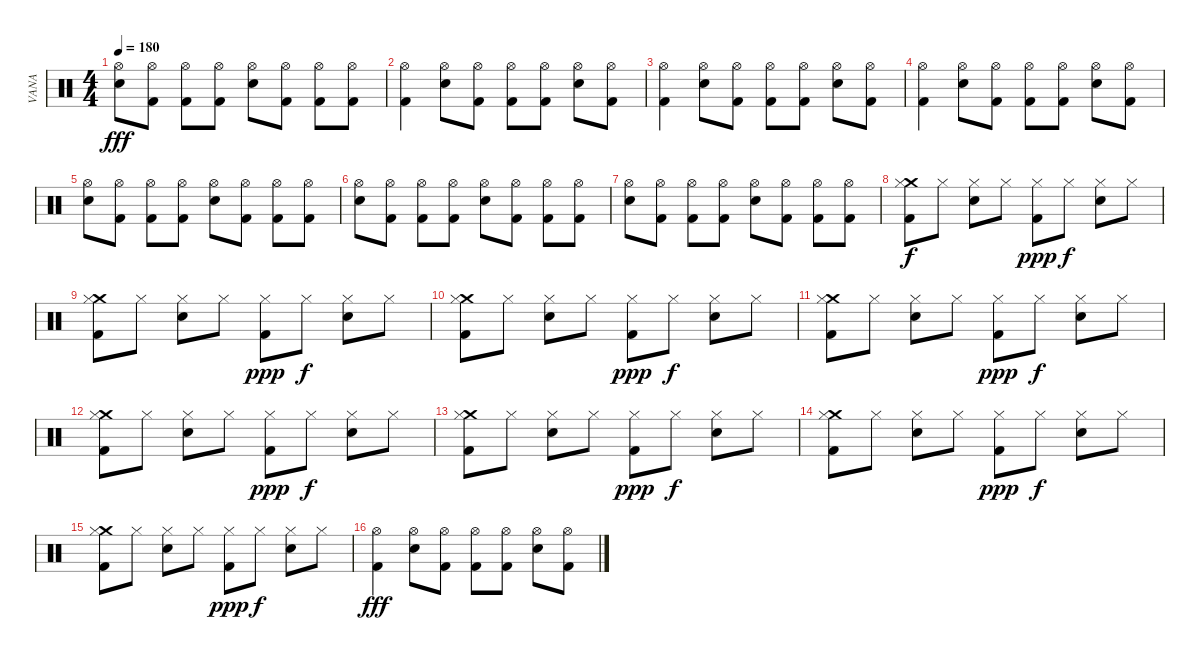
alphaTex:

\track ("VANA" "VANA") {instrument percussion}
\staff {score}
\articulation defaults
\ts (4 4)
\tempo 180
\clef neutral
\ks c
("Hi-Hat (open)" "Electric Snare (hit)").8{dy fff} ("Hi-Hat (open)" "Kick (hit) 2").8 ("Hi-Hat (open)" "Kick (hit) 2").8 ("Hi-Hat (open)" "Kick (hit) 2").8 ("Hi-Hat (open)" "Electric Snare (hit)").8 ("Hi-Hat (open)" "Kick (hit) 2").8 ("Hi-Hat (open)" "Kick (hit) 2").8 ("Hi-Hat (open)" "Kick (hit) 2").8 |
("Kick (hit) 2" "Hi-Hat (open)").4 ("Hi-Hat (open)" "Electric Snare (hit)").8 ("Hi-Hat (open)" "Kick (hit) 2").8 ("Hi-Hat (open)" "Kick (hit) 2").8 ("Hi-Hat (open)" "Kick (hit) 2").8 ("Hi-Hat (open)" "Electric Snare (hit)").8 ("Hi-Hat (open)" "Kick (hit) 2").8 |
("Kick (hit) 2" "Hi-Hat (open)").4 ("Hi-Hat (open)" "Electric Snare (hit)").8 ("Hi-Hat (open)" "Kick (hit) 2").8 ("Hi-Hat (open)" "Kick (hit) 2").8 ("Hi-Hat (open)" "Kick (hit) 2").8 ("Hi-Hat (open)" "Electric Snare (hit)").8 ("Hi-Hat (open)" "Kick (hit) 2").8 |
("Kick (hit) 2" "Hi-Hat (open)").4 ("Hi-Hat (open)" "Electric Snare (hit)").8 ("Hi-Hat (open)" "Kick (hit) 2").8 ("Hi-Hat (open)" "Kick (hit) 2").8 ("Hi-Hat (open)" "Kick (hit) 2").8 ("Hi-Hat (open)" "Electric Snare (hit)").8 ("Hi-Hat (open)" "Kick (hit) 2").8 |
("Hi-Hat (open)" "Electric Snare (hit)").8 ("Hi-Hat (open)" "Kick (hit) 2").8 ("Hi-Hat (open)" "Kick (hit) 2").8 ("Hi-Hat (open)" "Kick (hit) 2").8 ("Hi-Hat (open)" "Electric Snare (hit)").8 ("Hi-Hat (open)" "Kick (hit) 2").8 ("Hi-Hat (open)" "Kick (hit) 2").8 ("Hi-Hat (open)" "Kick (hit) 2").8 |
("Hi-Hat (open)" "Electric Snare (hit)").8 ("Hi-Hat (open)" "Kick (hit) 2").8 ("Hi-Hat (open)" "Kick (hit) 2").8 ("Hi-Hat (open)" "Kick (hit) 2").8 ("Hi-Hat (open)" "Electric Snare (hit)").8 ("Hi-Hat (open)" "Kick (hit) 2").8 ("Hi-Hat (open)" "Kick (hit) 2").8 ("Hi-Hat (open)" "Kick (hit) 2").8 |
("Hi-Hat (open)" "Electric Snare (hit)").8 ("Hi-Hat (open)" "Kick (hit) 2").8 ("Hi-Hat (open)" "Kick (hit) 2").8 ("Hi-Hat (open)" "Kick (hit) 2").8 ("Hi-Hat (open)" "Electric Snare (hit)").8 ("Hi-Hat (open)" "Kick (hit) 2").8 ("Hi-Hat (open)" "Kick (hit) 2").8 ("Hi-Hat (open)" "Kick (hit) 2").8 |
("Crash medium (hit)" "Hi-Hat (closed)" "Kick (hit) 2").8{dy f} "Hi-Hat (closed)".8 ("Hi-Hat (closed)" "Electric Snare (hit)").8 "Hi-Hat (closed)".8 ("Hi-Hat (closed)" "Kick (hit) 2").8{dy ppp} "Hi-Hat (closed)".8{dy f} ("Hi-Hat (closed)" "Electric Snare (hit)").8 "Hi-Hat (closed)".8 |
("Crash medium (hit)" "Hi-Hat (closed)" "Kick (hit) 2").8 "Hi-Hat (closed)".8 ("Hi-Hat (closed)" "Electric Snare (hit)").8 "Hi-Hat (closed)".8 ("Hi-Hat (closed)" "Kick (hit) 2").8{dy ppp} "Hi-Hat (closed)".8{dy f} ("Hi-Hat (closed)" "Electric Snare (hit)").8 "Hi-Hat (closed)".8 |
("Crash medium (hit)" "Hi-Hat (closed)" "Kick (hit) 2").8 "Hi-Hat (closed)".8 ("Hi-Hat (closed)" "Electric Snare (hit)").8 "Hi-Hat (closed)".8 ("Hi-Hat (closed)" "Kick (hit) 2").8{dy ppp} "Hi-Hat (closed)".8{dy f} ("Hi-Hat (closed)" "Electric Snare (hit)").8 "Hi-Hat (closed)".8 |
("Crash medium (hit)" "Hi-Hat (closed)" "Kick (hit) 2").8 "Hi-Hat (closed)".8 ("Hi-Hat (closed)" "Electric Snare (hit)").8 "Hi-Hat (closed)".8 ("Hi-Hat (closed)" "Kick (hit) 2").8{dy ppp} "Hi-Hat (closed)".8{dy f} ("Hi-Hat (closed)" "Electric Snare (hit)").8 "Hi-Hat (closed)".8 |
("Crash medium (hit)" "Hi-Hat (closed)" "Kick (hit) 2").8 "Hi-Hat (closed)".8 ("Hi-Hat (closed)" "Electric Snare (hit)").8 "Hi-Hat (closed)".8 ("Hi-Hat (closed)" "Kick (hit) 2").8{dy ppp} "Hi-Hat (closed)".8{dy f} ("Hi-Hat (closed)" "Electric Snare (hit)").8 "Hi-Hat (closed)".8 |
("Crash medium (hit)" "Hi-Hat (closed)" "Kick (hit) 2").8 "Hi-Hat (closed)".8 ("Hi-Hat (closed)" "Electric Snare (hit)").8 "Hi-Hat (closed)".8 ("Hi-Hat (closed)" "Kick (hit) 2").8{dy ppp} "Hi-Hat (closed)".8{dy f} ("Hi-Hat (closed)" "Electric Snare (hit)").8 "Hi-Hat (closed)".8 |
("Crash medium (hit)" "Hi-Hat (closed)" "Kick (hit) 2").8 "Hi-Hat (closed)".8 ("Hi-Hat (closed)" "Electric Snare (hit)").8 "Hi-Hat (closed)".8 ("Hi-Hat (closed)" "Kick (hit) 2").8{dy ppp} "Hi-Hat (closed)".8{dy f} ("Hi-Hat (closed)" "Electric Snare (hit)").8 "Hi-Hat (closed)".8 |
("Crash medium (hit)" "Hi-Hat (closed)" "Kick (hit) 2").8 "Hi-Hat (closed)".8 ("Hi-Hat (closed)" "Electric Snare (hit)").8 "Hi-Hat (closed)".8 ("Hi-Hat (closed)" "Kick (hit) 2").8{dy ppp} "Hi-Hat (closed)".8{dy f} ("Hi-Hat (closed)" "Electric Snare (hit)").8 "Hi-Hat (closed)".8 |
("Kick (hit) 2" "Hi-Hat (open)").4{dy fff} ("Hi-Hat (open)" "Electric Snare (hit)").8 ("Hi-Hat (open)" "Kick (hit) 2").8 ("Hi-Hat (open)" "Kick (hit) 2").8 ("Hi-Hat (open)" "Kick (hit) 2").8 ("Hi-Hat (open)" "Electric Snare (hit)").8 ("Hi-Hat (open)" "Kick (hit) 2").8
